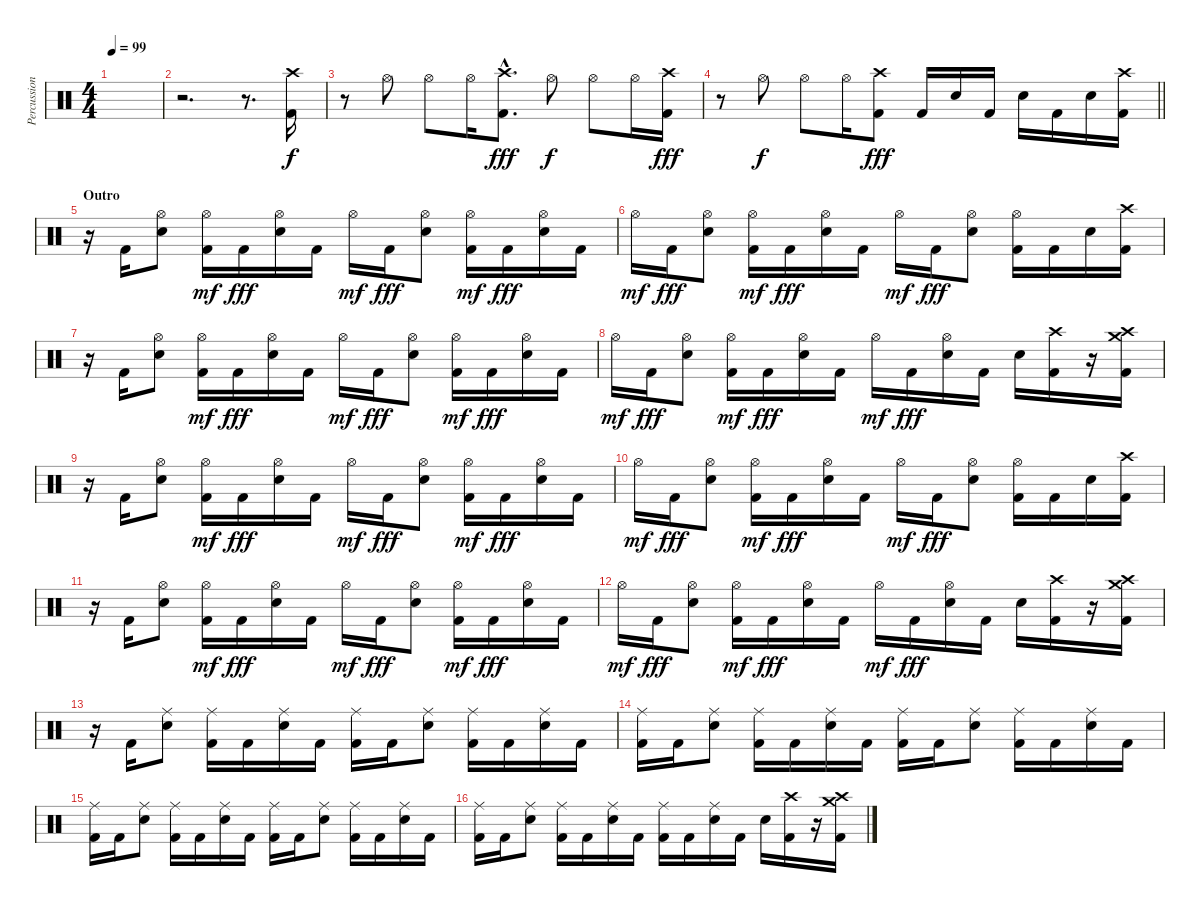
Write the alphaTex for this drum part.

\track ("Percussions" "Percussion") {instrument percussion}
\staff {score}
\articulation defaults
\ts (4 4)
\tempo 99
\clef neutral
\ks c
|
r.2{d} r.8{d} ("Kick (hit) 2" "Crash high (hit)").16 |
r.8 "Hi-Hat (open)".8{dy f} "Hi-Hat (open)".8 "Hi-Hat (open)".16 ("Kick (hit) 2"{hac} "Crash high (hit)"{hac}).8{d dy fff} "Hi-Hat (open)".8{dy f} "Hi-Hat (open)".8 "Hi-Hat (open)".16 ("Kick (hit) 2" "Crash high (hit)").16{dy fff} |
\barLineRight lightlight
r.8 "Hi-Hat (open)".8{dy f} "Hi-Hat (open)".8 "Hi-Hat (open)".16 ("Kick (hit) 2" "Crash high (hit)").8{dy fff} "Kick (hit) 2".16 "Snare (hit) 2".16 "Kick (hit) 2".16 "Snare (hit) 2".16 "Kick (hit) 2".16 "Snare (hit) 2".16 ("Kick (hit) 2" "Crash high (hit)").16 |
\section ("" "Outro")
r.16 "Kick (hit) 2".16 ("Snare (hit) 2" "Hi-Hat (open)").8 ("Kick (hit) 2" "Hi-Hat (open)").16{dy mf} "Kick (hit) 2".16{dy fff} ("Snare (hit) 2" "Hi-Hat (open)").16 "Kick (hit) 2".16 "Hi-Hat (open)".16{dy mf} "Kick (hit) 2".16{dy fff} ("Snare (hit) 2" "Hi-Hat (open)").8 ("Kick (hit) 2" "Hi-Hat (open)").16{dy mf} "Kick (hit) 2".16{dy fff} ("Snare (hit) 2" "Hi-Hat (open)").16 "Kick (hit) 2".16 |
"Hi-Hat (open)".16{dy mf} "Kick (hit) 2".16{dy fff} ("Snare (hit) 2" "Hi-Hat (open)").8 ("Kick (hit) 2" "Hi-Hat (open)").16{dy mf} "Kick (hit) 2".16{dy fff} ("Snare (hit) 2" "Hi-Hat (open)").16 "Kick (hit) 2".16 "Hi-Hat (open)".16{dy mf} "Kick (hit) 2".16{dy fff} ("Snare (hit) 2" "Hi-Hat (open)").8 ("Kick (hit) 2" "Hi-Hat (open)").16 "Kick (hit) 2".16 "Snare (hit) 2".16 ("Kick (hit) 2" "Crash high (hit)").16 |
r.16 "Kick (hit) 2".16 ("Snare (hit) 2" "Hi-Hat (open)").8 ("Kick (hit) 2" "Hi-Hat (open)").16{dy mf} "Kick (hit) 2".16{dy fff} ("Snare (hit) 2" "Hi-Hat (open)").16 "Kick (hit) 2".16 "Hi-Hat (open)".16{dy mf} "Kick (hit) 2".16{dy fff} ("Snare (hit) 2" "Hi-Hat (open)").8 ("Kick (hit) 2" "Hi-Hat (open)").16{dy mf} "Kick (hit) 2".16{dy fff} ("Snare (hit) 2" "Hi-Hat (open)").16 "Kick (hit) 2".16 |
"Hi-Hat (open)".16{dy mf} "Kick (hit) 2".16{dy fff} ("Snare (hit) 2" "Hi-Hat (open)").8 ("Kick (hit) 2" "Hi-Hat (open)").16{dy mf} "Kick (hit) 2".16{dy fff} ("Snare (hit) 2" "Hi-Hat (open)").16 "Kick (hit) 2".16 "Hi-Hat (open)".16{dy mf} "Kick (hit) 2".16{dy fff} ("Snare (hit) 2" "Hi-Hat (open)").16 "Kick (hit) 2".16 "Snare (hit) 2".16 ("Kick (hit) 2" "Crash high (hit)").16 r.16 ("Kick (hit) 2" "Crash high (hit)" "Crash medium (hit)").16 |
r.16 "Kick (hit) 2".16 ("Snare (hit) 2" "Hi-Hat (open)").8 ("Kick (hit) 2" "Hi-Hat (open)").16{dy mf} "Kick (hit) 2".16{dy fff} ("Snare (hit) 2" "Hi-Hat (open)").16 "Kick (hit) 2".16 "Hi-Hat (open)".16{dy mf} "Kick (hit) 2".16{dy fff} ("Snare (hit) 2" "Hi-Hat (open)").8 ("Kick (hit) 2" "Hi-Hat (open)").16{dy mf} "Kick (hit) 2".16{dy fff} ("Snare (hit) 2" "Hi-Hat (open)").16 "Kick (hit) 2".16 |
"Hi-Hat (open)".16{dy mf} "Kick (hit) 2".16{dy fff} ("Snare (hit) 2" "Hi-Hat (open)").8 ("Kick (hit) 2" "Hi-Hat (open)").16{dy mf} "Kick (hit) 2".16{dy fff} ("Snare (hit) 2" "Hi-Hat (open)").16 "Kick (hit) 2".16 "Hi-Hat (open)".16{dy mf} "Kick (hit) 2".16{dy fff} ("Snare (hit) 2" "Hi-Hat (open)").8 ("Kick (hit) 2" "Hi-Hat (open)").16 "Kick (hit) 2".16 "Snare (hit) 2".16 ("Kick (hit) 2" "Crash high (hit)").16 |
r.16 "Kick (hit) 2".16 ("Snare (hit) 2" "Hi-Hat (open)").8 ("Kick (hit) 2" "Hi-Hat (open)").16{dy mf} "Kick (hit) 2".16{dy fff} ("Snare (hit) 2" "Hi-Hat (open)").16 "Kick (hit) 2".16 "Hi-Hat (open)".16{dy mf} "Kick (hit) 2".16{dy fff} ("Snare (hit) 2" "Hi-Hat (open)").8 ("Kick (hit) 2" "Hi-Hat (open)").16{dy mf} "Kick (hit) 2".16{dy fff} ("Snare (hit) 2" "Hi-Hat (open)").16 "Kick (hit) 2".16 |
"Hi-Hat (open)".16{dy mf} "Kick (hit) 2".16{dy fff} ("Snare (hit) 2" "Hi-Hat (open)").8 ("Kick (hit) 2" "Hi-Hat (open)").16{dy mf} "Kick (hit) 2".16{dy fff} ("Snare (hit) 2" "Hi-Hat (open)").16 "Kick (hit) 2".16 "Hi-Hat (open)".16{dy mf} "Kick (hit) 2".16{dy fff} ("Snare (hit) 2" "Hi-Hat (open)").16 "Kick (hit) 2".16 "Snare (hit) 2".16 ("Kick (hit) 2" "Crash high (hit)").16 r.16 ("Kick (hit) 2" "Crash high (hit)" "Crash medium (hit)").16 |
r.16 "Kick (hit) 2".16 ("Snare (hit) 2" "Ride (middle)").8 ("Kick (hit) 2" "Ride (middle)").16 "Kick (hit) 2".16 ("Snare (hit) 2" "Ride (middle)").16 "Kick (hit) 2".16 ("Kick (hit) 2" "Ride (middle)").16 "Kick (hit) 2".16 ("Snare (hit) 2" "Ride (middle)").8 ("Kick (hit) 2" "Ride (middle)").16 "Kick (hit) 2".16 ("Snare (hit) 2" "Ride (middle)").16 "Kick (hit) 2".16 |
("Kick (hit) 2" "Ride (middle)").16 "Kick (hit) 2".16 ("Snare (hit) 2" "Ride (middle)").8 ("Kick (hit) 2" "Ride (middle)").16 "Kick (hit) 2".16 ("Snare (hit) 2" "Ride (middle)").16 "Kick (hit) 2".16 ("Kick (hit) 2" "Ride (middle)").16 "Kick (hit) 2".16 ("Snare (hit) 2" "Ride (middle)").8 ("Kick (hit) 2" "Ride (middle)").16 "Kick (hit) 2".16 ("Snare (hit) 2" "Ride (middle)").16 "Kick (hit) 2".16 |
("Kick (hit) 2" "Ride (middle)").16 "Kick (hit) 2".16 ("Snare (hit) 2" "Ride (middle)").8 ("Kick (hit) 2" "Ride (middle)").16 "Kick (hit) 2".16 ("Snare (hit) 2" "Ride (middle)").16 "Kick (hit) 2".16 ("Kick (hit) 2" "Ride (middle)").16 "Kick (hit) 2".16 ("Snare (hit) 2" "Ride (middle)").8 ("Kick (hit) 2" "Ride (middle)").16 "Kick (hit) 2".16 ("Snare (hit) 2" "Ride (middle)").16 "Kick (hit) 2".16 |
("Kick (hit) 2" "Ride (middle)").16 "Kick (hit) 2".16 ("Snare (hit) 2" "Ride (middle)").8 ("Kick (hit) 2" "Ride (middle)").16 "Kick (hit) 2".16 ("Snare (hit) 2" "Ride (middle)").16 "Kick (hit) 2".16 ("Kick (hit) 2" "Ride (middle)").16 "Kick (hit) 2".16 ("Snare (hit) 2" "Ride (middle)").16 "Kick (hit) 2".16 "Snare (hit) 2".16 ("Kick (hit) 2" "Crash high (hit)").16 r.16 ("Kick (hit) 2" "Crash high (hit)" "Crash medium (hit)").16
